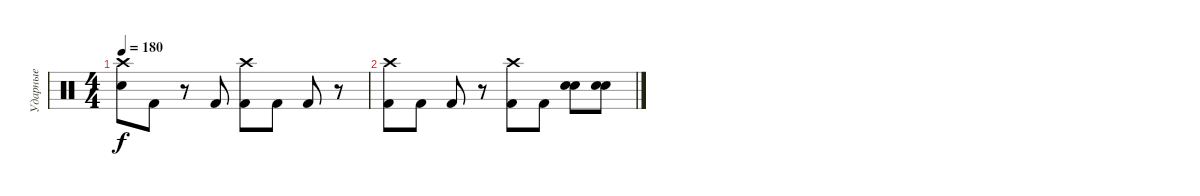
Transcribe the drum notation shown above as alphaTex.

\track ("Ударные" "Ударные") {instrument percussion}
\staff {score}
\articulation defaults
\ts (4 4)
\tempo 180
\clef neutral
\ks c
("Crash high (hit)" "Snare (hit) 2").8{dy f} "Kick (hit) 2".8 r.8 "Kick (hit) 2".8 ("Crash high (hit)" "Kick (hit) 2").8 "Kick (hit) 2".8 "Kick (hit) 2".8 r.8 |
("Crash high (hit)" "Kick (hit) 2").8 "Kick (hit) 2".8 "Kick (hit) 2".8 r.8 ("Crash high (hit)" "Kick (hit) 2").8 "Kick (hit) 2".8 ("Snare (hit) 2" "Snare (hit) 2").8 ("Snare (hit) 2" "Snare (hit) 2").8
